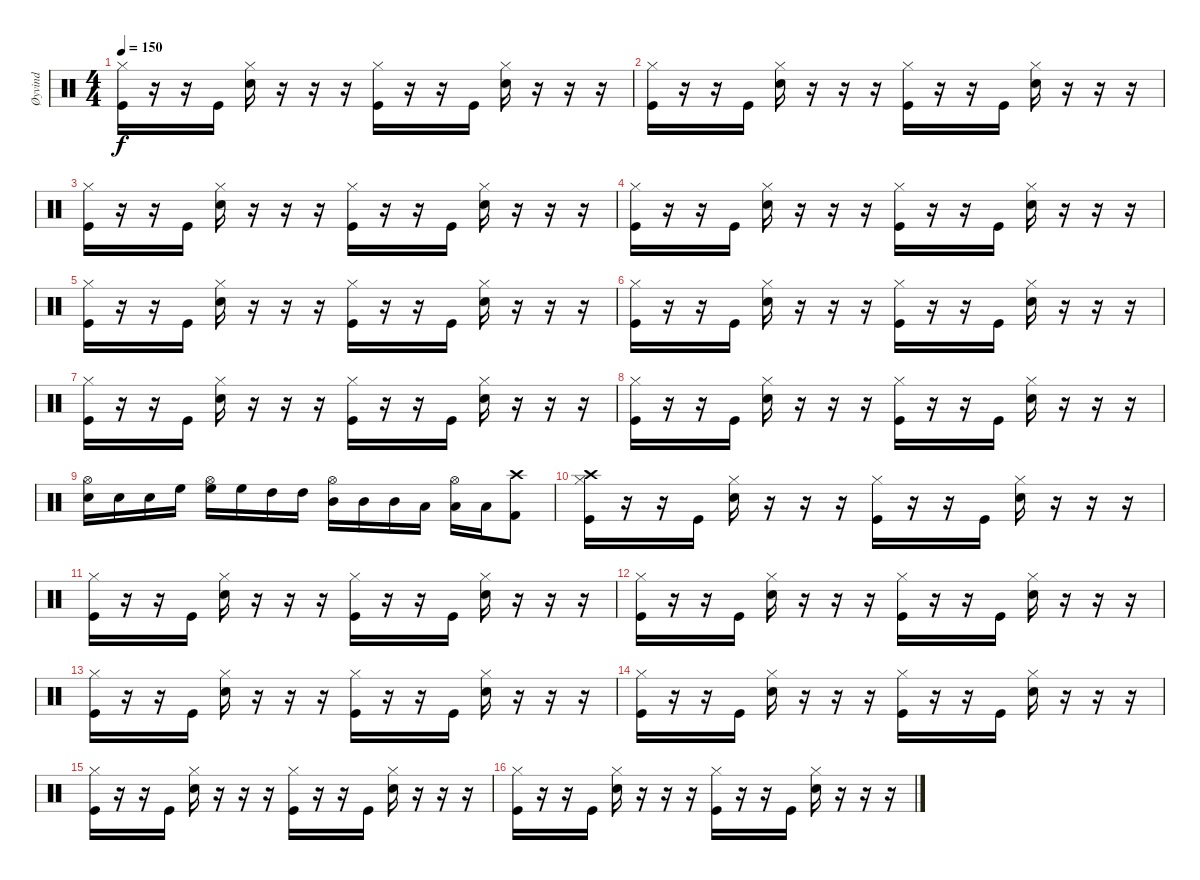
\track ("Øyvind" "Øyvind") {instrument percussion}
\staff {score}
\articulation defaults
\ts (4 4)
\tempo 150
\clef neutral
\ks c
("Kick (hit)" "Hi-Hat (closed)").16{dy f} r.16 r.16 "Kick (hit)".16 ("Electric Snare (hit)" "Hi-Hat (closed)").16 r.16 r.16 r.16 ("Kick (hit)" "Hi-Hat (closed)").16 r.16 r.16 "Kick (hit)".16 ("Electric Snare (hit)" "Hi-Hat (closed)").16 r.16 r.16 r.16 |
("Kick (hit)" "Hi-Hat (closed)").16 r.16 r.16 "Kick (hit)".16 ("Electric Snare (hit)" "Hi-Hat (closed)").16 r.16 r.16 r.16 ("Kick (hit)" "Hi-Hat (closed)").16 r.16 r.16 "Kick (hit)".16 ("Electric Snare (hit)" "Hi-Hat (closed)").16 r.16 r.16 r.16 |
("Kick (hit)" "Hi-Hat (closed)").16 r.16 r.16 "Kick (hit)".16 ("Electric Snare (hit)" "Hi-Hat (closed)").16 r.16 r.16 r.16 ("Kick (hit)" "Hi-Hat (closed)").16 r.16 r.16 "Kick (hit)".16 ("Electric Snare (hit)" "Hi-Hat (closed)").16 r.16 r.16 r.16 |
("Kick (hit)" "Hi-Hat (closed)").16 r.16 r.16 "Kick (hit)".16 ("Electric Snare (hit)" "Hi-Hat (closed)").16 r.16 r.16 r.16 ("Kick (hit)" "Hi-Hat (closed)").16 r.16 r.16 "Kick (hit)".16 ("Electric Snare (hit)" "Hi-Hat (closed)").16 r.16 r.16 r.16 |
("Kick (hit)" "Hi-Hat (closed)").16 r.16 r.16 "Kick (hit)".16 ("Electric Snare (hit)" "Hi-Hat (closed)").16 r.16 r.16 r.16 ("Kick (hit)" "Hi-Hat (closed)").16 r.16 r.16 "Kick (hit)".16 ("Electric Snare (hit)" "Hi-Hat (closed)").16 r.16 r.16 r.16 |
("Kick (hit)" "Hi-Hat (closed)").16 r.16 r.16 "Kick (hit)".16 ("Electric Snare (hit)" "Hi-Hat (closed)").16 r.16 r.16 r.16 ("Kick (hit)" "Hi-Hat (closed)").16 r.16 r.16 "Kick (hit)".16 ("Electric Snare (hit)" "Hi-Hat (closed)").16 r.16 r.16 r.16 |
("Kick (hit)" "Hi-Hat (closed)").16 r.16 r.16 "Kick (hit)".16 ("Electric Snare (hit)" "Hi-Hat (closed)").16 r.16 r.16 r.16 ("Kick (hit)" "Hi-Hat (closed)").16 r.16 r.16 "Kick (hit)".16 ("Electric Snare (hit)" "Hi-Hat (closed)").16 r.16 r.16 r.16 |
("Kick (hit)" "Hi-Hat (closed)").16 r.16 r.16 "Kick (hit)".16 ("Electric Snare (hit)" "Hi-Hat (closed)").16 r.16 r.16 r.16 ("Kick (hit)" "Hi-Hat (closed)").16 r.16 r.16 "Kick (hit)".16 ("Electric Snare (hit)" "Hi-Hat (closed)").16 r.16 r.16 r.16 |
("Snare (hit) 2" "Hi-Hat (open)").16 "Snare (hit) 2".16 "Snare (hit) 2".16 "High Floor Tom (hit)".16 ("Hi-Hat (open)" "High Floor Tom (hit)").16 "High Floor Tom (hit)".16 "High Tom (hit)".16 "High Tom (hit)".16 ("Hi-Hat (open)" "Mid Tom (hit)").16 "Mid Tom (hit)".16 "Mid Tom (hit)".16 "Low Tom (hit)".16 ("Low Tom (hit)" "Hi-Hat (open)").16 "Low Tom (hit)".16 ("Kick (hit) 2" "Crash high (hit)").8 |
("Crash high (hit)" "Kick (hit)" "Hi-Hat (closed)").16 r.16 r.16 "Kick (hit)".16 ("Electric Snare (hit)" "Hi-Hat (closed)").16 r.16 r.16 r.16 ("Kick (hit)" "Hi-Hat (closed)").16 r.16 r.16 "Kick (hit)".16 ("Electric Snare (hit)" "Hi-Hat (closed)").16 r.16 r.16 r.16 |
("Kick (hit)" "Hi-Hat (closed)").16 r.16 r.16 "Kick (hit)".16 ("Electric Snare (hit)" "Hi-Hat (closed)").16 r.16 r.16 r.16 ("Kick (hit)" "Hi-Hat (closed)").16 r.16 r.16 "Kick (hit)".16 ("Electric Snare (hit)" "Hi-Hat (closed)").16 r.16 r.16 r.16 |
("Kick (hit)" "Hi-Hat (closed)").16 r.16 r.16 "Kick (hit)".16 ("Electric Snare (hit)" "Hi-Hat (closed)").16 r.16 r.16 r.16 ("Kick (hit)" "Hi-Hat (closed)").16 r.16 r.16 "Kick (hit)".16 ("Electric Snare (hit)" "Hi-Hat (closed)").16 r.16 r.16 r.16 |
("Kick (hit)" "Hi-Hat (closed)").16 r.16 r.16 "Kick (hit)".16 ("Electric Snare (hit)" "Hi-Hat (closed)").16 r.16 r.16 r.16 ("Kick (hit)" "Hi-Hat (closed)").16 r.16 r.16 "Kick (hit)".16 ("Electric Snare (hit)" "Hi-Hat (closed)").16 r.16 r.16 r.16 |
("Kick (hit)" "Hi-Hat (closed)").16 r.16 r.16 "Kick (hit)".16 ("Electric Snare (hit)" "Hi-Hat (closed)").16 r.16 r.16 r.16 ("Kick (hit)" "Hi-Hat (closed)").16 r.16 r.16 "Kick (hit)".16 ("Electric Snare (hit)" "Hi-Hat (closed)").16 r.16 r.16 r.16 |
("Kick (hit)" "Hi-Hat (closed)").16 r.16 r.16 "Kick (hit)".16 ("Electric Snare (hit)" "Hi-Hat (closed)").16 r.16 r.16 r.16 ("Kick (hit)" "Hi-Hat (closed)").16 r.16 r.16 "Kick (hit)".16 ("Electric Snare (hit)" "Hi-Hat (closed)").16 r.16 r.16 r.16 |
("Kick (hit)" "Hi-Hat (closed)").16 r.16 r.16 "Kick (hit)".16 ("Electric Snare (hit)" "Hi-Hat (closed)").16 r.16 r.16 r.16 ("Kick (hit)" "Hi-Hat (closed)").16 r.16 r.16 "Kick (hit)".16 ("Electric Snare (hit)" "Hi-Hat (closed)").16 r.16 r.16 r.16
